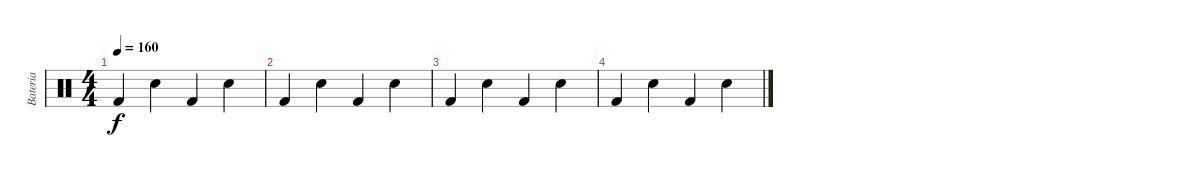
\track ("Bateria" "Bateria") {instrument percussion}
\staff {score}
\articulation defaults
\ts (4 4)
\tempo 160
\clef neutral
\ks c "Kick (hit) 2".4{dy f} "Snare (hit) 2".4 "Kick (hit) 2".4 "Snare (hit) 2".4
|
"Kick (hit) 2".4 "Snare (hit) 2".4 "Kick (hit) 2".4 "Snare (hit) 2".4 |
"Kick (hit) 2".4 "Snare (hit) 2".4 "Kick (hit) 2".4 "Snare (hit) 2".4 |
"Kick (hit) 2".4 "Snare (hit) 2".4 "Kick (hit) 2".4 "Snare (hit) 2".4
